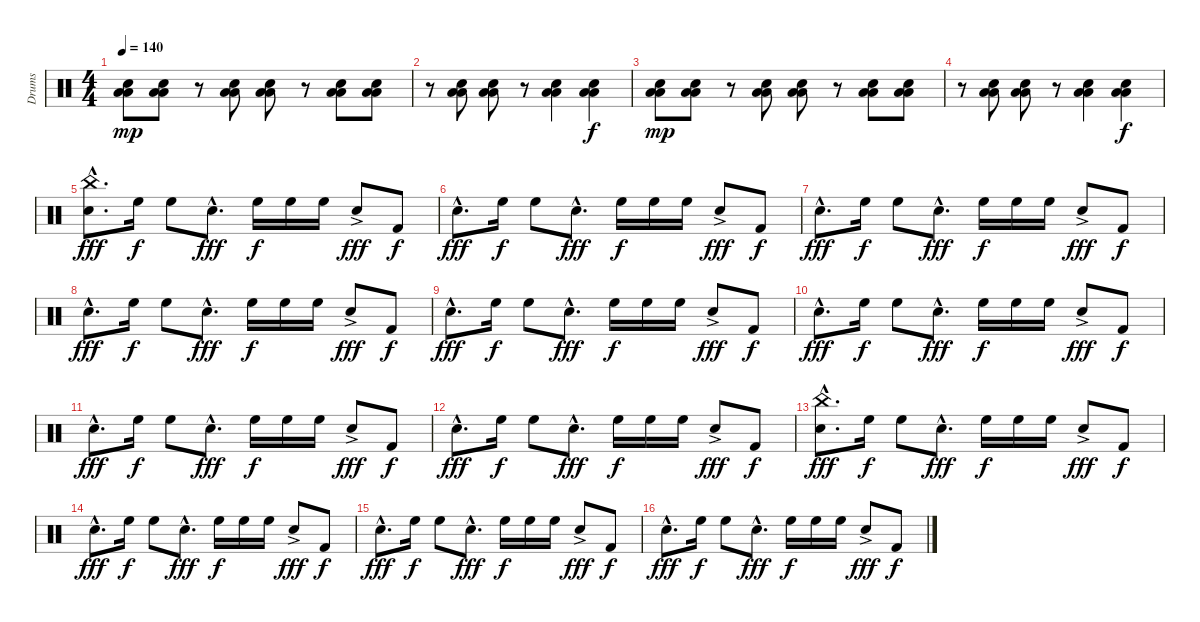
\track ("Drums" "Drums") {instrument percussion}
\staff {score}
\articulation defaults
\ts (4 4)
\tempo 140
\clef neutral
\ks c
("Electric Snare (hit)" "Low Tom (hit)" "Low Floor Tom (hit)").8{dy mp} ("Electric Snare (hit)" "Low Tom (hit)" "Low Floor Tom (hit)").8 r.8 ("Electric Snare (hit)" "Low Tom (hit)" "Low Floor Tom (hit)").8 ("Electric Snare (hit)" "Low Tom (hit)" "Low Floor Tom (hit)").8 r.8 ("Electric Snare (hit)" "Low Tom (hit)" "Low Floor Tom (hit)").8 ("Electric Snare (hit)" "Low Tom (hit)" "Low Floor Tom (hit)").8 |
r.8 ("Electric Snare (hit)" "Low Tom (hit)" "Low Floor Tom (hit)").8 ("Electric Snare (hit)" "Low Tom (hit)" "Low Floor Tom (hit)").8 r.8 ("Electric Snare (hit)" "Low Tom (hit)" "Low Floor Tom (hit)").4 ("Electric Snare (hit)" "Low Tom (hit)" "Low Floor Tom (hit)").4{dy f} |
("Electric Snare (hit)" "Low Tom (hit)" "Low Floor Tom (hit)").8{dy mp} ("Electric Snare (hit)" "Low Tom (hit)" "Low Floor Tom (hit)").8 r.8 ("Electric Snare (hit)" "Low Tom (hit)" "Low Floor Tom (hit)").8 ("Electric Snare (hit)" "Low Tom (hit)" "Low Floor Tom (hit)").8 r.8 ("Electric Snare (hit)" "Low Tom (hit)" "Low Floor Tom (hit)").8 ("Electric Snare (hit)" "Low Tom (hit)" "Low Floor Tom (hit)").8 |
r.8 ("Electric Snare (hit)" "Low Tom (hit)" "Low Floor Tom (hit)").8 ("Electric Snare (hit)" "Low Tom (hit)" "Low Floor Tom (hit)").8 r.8 ("Electric Snare (hit)" "Low Tom (hit)" "Low Floor Tom (hit)").4 ("Electric Snare (hit)" "Low Tom (hit)" "Low Floor Tom (hit)").4{dy f} |
("Electric Snare (hit)"{hac} "China (hit)"{hac}).8{d dy fff} "High Floor Tom (hit)".16{dy f} "High Floor Tom (hit)".8 "Electric Snare (hit)"{hac}.8{d dy fff} "High Floor Tom (hit)".16{dy f} "High Floor Tom (hit)".16 "High Floor Tom (hit)".16 "Electric Snare (hit)"{ac}.8{dy fff} "Kick (hit) 2".8{dy f} |
"Electric Snare (hit)"{hac}.8{d dy fff} "High Floor Tom (hit)".16{dy f} "High Floor Tom (hit)".8 "Electric Snare (hit)"{hac}.8{d dy fff} "High Floor Tom (hit)".16{dy f} "High Floor Tom (hit)".16 "High Floor Tom (hit)".16 "Electric Snare (hit)"{ac}.8{dy fff} "Kick (hit) 2".8{dy f} |
"Electric Snare (hit)"{hac}.8{d dy fff} "High Floor Tom (hit)".16{dy f} "High Floor Tom (hit)".8 "Electric Snare (hit)"{hac}.8{d dy fff} "High Floor Tom (hit)".16{dy f} "High Floor Tom (hit)".16 "High Floor Tom (hit)".16 "Electric Snare (hit)"{ac}.8{dy fff} "Kick (hit) 2".8{dy f} |
"Electric Snare (hit)"{hac}.8{d dy fff} "High Floor Tom (hit)".16{dy f} "High Floor Tom (hit)".8 "Electric Snare (hit)"{hac}.8{d dy fff} "High Floor Tom (hit)".16{dy f} "High Floor Tom (hit)".16 "High Floor Tom (hit)".16 "Electric Snare (hit)"{ac}.8{dy fff} "Kick (hit) 2".8{dy f} |
"Electric Snare (hit)"{hac}.8{d dy fff} "High Floor Tom (hit)".16{dy f} "High Floor Tom (hit)".8 "Electric Snare (hit)"{hac}.8{d dy fff} "High Floor Tom (hit)".16{dy f} "High Floor Tom (hit)".16 "High Floor Tom (hit)".16 "Electric Snare (hit)"{ac}.8{dy fff} "Kick (hit) 2".8{dy f} |
"Electric Snare (hit)"{hac}.8{d dy fff} "High Floor Tom (hit)".16{dy f} "High Floor Tom (hit)".8 "Electric Snare (hit)"{hac}.8{d dy fff} "High Floor Tom (hit)".16{dy f} "High Floor Tom (hit)".16 "High Floor Tom (hit)".16 "Electric Snare (hit)"{ac}.8{dy fff} "Kick (hit) 2".8{dy f} |
"Electric Snare (hit)"{hac}.8{d dy fff} "High Floor Tom (hit)".16{dy f} "High Floor Tom (hit)".8 "Electric Snare (hit)"{hac}.8{d dy fff} "High Floor Tom (hit)".16{dy f} "High Floor Tom (hit)".16 "High Floor Tom (hit)".16 "Electric Snare (hit)"{ac}.8{dy fff} "Kick (hit) 2".8{dy f} |
"Electric Snare (hit)"{hac}.8{d dy fff} "High Floor Tom (hit)".16{dy f} "High Floor Tom (hit)".8 "Electric Snare (hit)"{hac}.8{d dy fff} "High Floor Tom (hit)".16{dy f} "High Floor Tom (hit)".16 "High Floor Tom (hit)".16 "Electric Snare (hit)"{ac}.8{dy fff} "Kick (hit) 2".8{dy f} |
("China (hit)"{hac} "Electric Snare (hit)"{hac}).8{d dy fff} "High Floor Tom (hit)".16{dy f} "High Floor Tom (hit)".8 "Electric Snare (hit)"{hac}.8{d dy fff} "High Floor Tom (hit)".16{dy f} "High Floor Tom (hit)".16 "High Floor Tom (hit)".16 "Electric Snare (hit)"{ac}.8{dy fff} "Kick (hit) 2".8{dy f} |
"Electric Snare (hit)"{hac}.8{d dy fff} "High Floor Tom (hit)".16{dy f} "High Floor Tom (hit)".8 "Electric Snare (hit)"{hac}.8{d dy fff} "High Floor Tom (hit)".16{dy f} "High Floor Tom (hit)".16 "High Floor Tom (hit)".16 "Electric Snare (hit)"{ac}.8{dy fff} "Kick (hit) 2".8{dy f} |
"Electric Snare (hit)"{hac}.8{d dy fff} "High Floor Tom (hit)".16{dy f} "High Floor Tom (hit)".8 "Electric Snare (hit)"{hac}.8{d dy fff} "High Floor Tom (hit)".16{dy f} "High Floor Tom (hit)".16 "High Floor Tom (hit)".16 "Electric Snare (hit)"{ac}.8{dy fff} "Kick (hit) 2".8{dy f} |
"Electric Snare (hit)"{hac}.8{d dy fff} "High Floor Tom (hit)".16{dy f} "High Floor Tom (hit)".8 "Electric Snare (hit)"{hac}.8{d dy fff} "High Floor Tom (hit)".16{dy f} "High Floor Tom (hit)".16 "High Floor Tom (hit)".16 "Electric Snare (hit)"{ac}.8{dy fff} "Kick (hit) 2".8{dy f}
